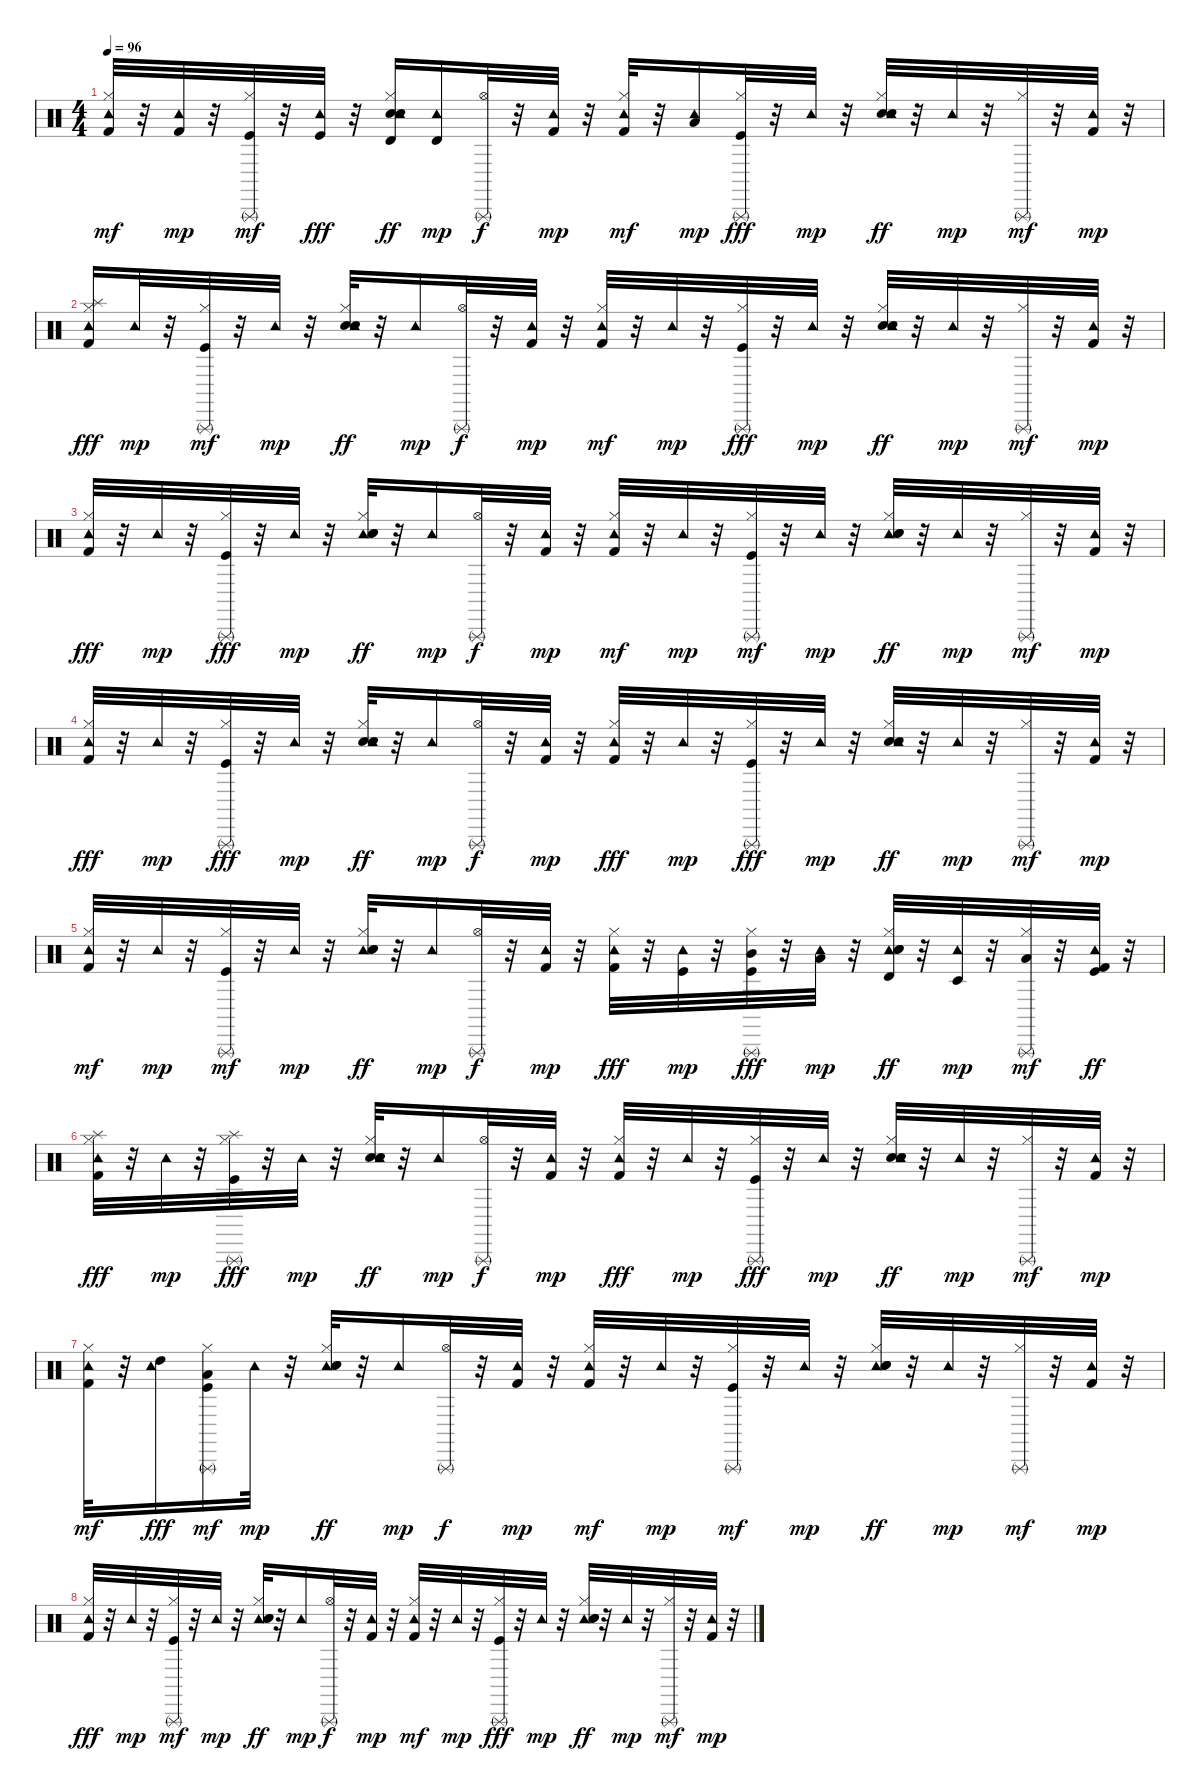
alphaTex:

\track "" {instrument percussion}
\staff {score}
\articulation defaults
\ts (4 4)
\tempo 96
\clef neutral
\ks c
("Hi-Hat (closed)" "Kick (hit) 2" "Tambourine (hit)").32{dy mf} r.32 ("Kick (hit) 2" "Tambourine (hit)").32{dy mp} r.32 ("Kick (hit)" "Hi-Hat (closed)" "Triangle (rnute)").32{dy mf} r.32 ("Tambourine (hit)" "Kick (hit)").32{dy fff} r.32 ("Timbale high (hit)" "Hi-Hat (closed)" "Electric Snare (hit)" "Tambourine (hit)" "Hand Clap (hit)").16{dy ff} ("Timbale high (hit)" "Tambourine (hit)").16{dy mp} ("Triangle (rnute)" "Hi-Hat (open)").32{dy f} r.32 ("Kick (hit) 2" "Tambourine (hit)").32{dy mp} r.32 ("Kick (hit) 2" "Hi-Hat (closed)" "Tambourine (hit)").32{dy mf} r.32 ("Low Tom (hit)" "Tambourine (hit)").16{dy mp} ("Triangle (rnute)" "Hi-Hat (closed)" "Kick (hit)").32{dy fff} r.32 "Tambourine (hit)".32{dy mp} r.32 ("Electric Snare (hit)" "Hi-Hat (closed)" "Tambourine (hit)" "Hand Clap (hit)").32{dy ff} r.32 "Tambourine (hit)".32{dy mp} r.32 ("Triangle (rnute)" "Hi-Hat (closed)").32{dy mf} r.32 ("Kick (hit) 2" "Tambourine (hit)").32{dy mp} r.32 |
("Splash (hit)" "Tambourine (hit)" "Kick (hit) 2" "Hi-Hat (closed)").16{dy fff} "Tambourine (hit)".32{dy mp} r.32 ("Kick (hit)" "Hi-Hat (closed)" "Triangle (rnute)").32{dy mf} r.32 "Tambourine (hit)".32{dy mp} r.32 ("Snare (hit) 2" "Hi-Hat (closed)" "Tambourine (hit)" "Hand Clap (hit)").32{dy ff} r.32 "Tambourine (hit)".16{dy mp} ("Triangle (rnute)" "Hi-Hat (open)").32{dy f} r.32 ("Kick (hit) 2" "Tambourine (hit)").32{dy mp} r.32 ("Kick (hit) 2" "Tambourine (hit)" "Hi-Hat (closed)").32{dy mf} r.32 "Tambourine (hit)".32{dy mp} r.32 ("Hi-Hat (closed)" "Kick (hit)" "Triangle (rnute)").32{dy fff} r.32 "Tambourine (hit)".32{dy mp} r.32 ("Snare (hit) 2" "Tambourine (hit)" "Hi-Hat (closed)" "Hand Clap (hit)").32{dy ff} r.32 "Tambourine (hit)".32{dy mp} r.32 ("Hi-Hat (closed)" "Triangle (rnute)").32{dy mf} r.32 ("Kick (hit) 2" "Tambourine (hit)").32{dy mp} r.32 |
("Hi-Hat (closed)" "Tambourine (hit)" "Kick (hit) 2").32{dy fff} r.32 "Tambourine (hit)".32{dy mp} r.32 ("Hi-Hat (closed)" "Triangle (rnute)" "Kick (hit)").32{dy fff} r.32 "Tambourine (hit)".32{dy mp} r.32 ("Tambourine (hit)" "Snare (hit) 2" "Hi-Hat (closed)" "Hand Clap (hit)").32{dy ff} r.32 "Tambourine (hit)".16{dy mp} ("Hi-Hat (open)" "Triangle (rnute)").32{dy f} r.32 ("Tambourine (hit)" "Kick (hit) 2").32{dy mp} r.32 ("Kick (hit) 2" "Tambourine (hit)" "Hi-Hat (closed)").32{dy mf} r.32 "Tambourine (hit)".32{dy mp} r.32 ("Kick (hit)" "Hi-Hat (closed)" "Triangle (rnute)").32{dy mf} r.32 "Tambourine (hit)".32{dy mp} r.32 ("Tambourine (hit)" "Snare (hit) 2" "Hi-Hat (closed)" "Hand Clap (hit)").32{dy ff} r.32 "Tambourine (hit)".32{dy mp} r.32 ("Triangle (rnute)" "Hi-Hat (closed)").32{dy mf} r.32 ("Kick (hit) 2" "Tambourine (hit)").32{dy mp} r.32 |
("Tambourine (hit)" "Hi-Hat (closed)" "Kick (hit) 2").32{dy fff} r.32 "Tambourine (hit)".32{dy mp} r.32 ("Hi-Hat (closed)" "Triangle (rnute)" "Kick (hit)").32{dy fff} r.32 "Tambourine (hit)".32{dy mp} r.32 ("Snare (hit) 2" "Tambourine (hit)" "Hi-Hat (closed)" "Hand Clap (hit)").32{dy ff} r.32 "Tambourine (hit)".16{dy mp} ("Triangle (rnute)" "Hi-Hat (open)").32{dy f} r.32 ("Tambourine (hit)" "Kick (hit) 2").32{dy mp} r.32 ("Tambourine (hit)" "Kick (hit) 2" "Hi-Hat (closed)").32{dy fff} r.32 "Tambourine (hit)".32{dy mp} r.32 ("Hi-Hat (closed)" "Triangle (rnute)" "Kick (hit)").32{dy fff} r.32 "Tambourine (hit)".32{dy mp} r.32 ("Snare (hit) 2" "Tambourine (hit)" "Hi-Hat (closed)" "Hand Clap (hit)").32{dy ff} r.32 "Tambourine (hit)".32{dy mp} r.32 ("Hi-Hat (closed)" "Triangle (rnute)").32{dy mf} r.32 ("Kick (hit) 2" "Tambourine (hit)").32{dy mp} r.32 |
("Kick (hit) 2" "Hi-Hat (closed)" "Tambourine (hit)").32{dy mf} r.32 "Tambourine (hit)".32{dy mp} r.32 ("Kick (hit)" "Triangle (rnute)" "Hi-Hat (closed)").32{dy mf} r.32 "Tambourine (hit)".32{dy mp} r.32 ("Tambourine (hit)" "Hi-Hat (closed)" "Snare (hit) 2" "Hand Clap (hit)").32{dy ff} r.32 "Tambourine (hit)".16{dy mp} ("Hi-Hat (open)" "Triangle (rnute)").32{dy f} r.32 ("Kick (hit) 2" "Tambourine (hit)").32{dy mp} r.32 ("Hi-Hat (closed)" "Tambourine (hit)" "Kick (hit) 2").32{dy fff} r.32 ("Kick (hit)" "Tambourine (hit)").32{dy mp} r.32 ("Hi-Hat (closed)" "Kick (hit)" "Mid Tom (hit)" "Triangle (rnute)").32{dy fff} r.32 ("Low Tom (hit)" "Tambourine (hit)").32{dy mp} r.32 ("Hi-Hat (closed)" "Timbale high (hit)" "Tambourine (hit)" "Snare (hit) 2" "Hand Clap (hit)").32{dy ff} r.32 ("Timbale low (hit)" "Tambourine (hit)").32{dy mp} r.32 ("Low Tom (hit)" "Triangle (rnute)" "Hi-Hat (closed)").32{dy mf} r.32 ("Tambourine (hit)" "Kick (hit)" "Kick (hit) 2").32{dy ff} r.32 |
("Splash (hit)" "Tambourine (hit)" "Hi-Hat (closed)" "Kick (hit) 2").32{dy fff} r.32 "Tambourine (hit)".32{dy mp} r.32 ("Hi-Hat (closed)" "Splash (hit)" "Triangle (rnute)" "Kick (hit)").32{dy fff} r.32 "Tambourine (hit)".32{dy mp} r.32 ("Hi-Hat (closed)" "Snare (hit) 2" "Tambourine (hit)" "Hand Clap (hit)").32{dy ff} r.32 "Tambourine (hit)".16{dy mp} ("Triangle (rnute)" "Hi-Hat (open)").32{dy f} r.32 ("Kick (hit) 2" "Tambourine (hit)").32{dy mp} r.32 ("Tambourine (hit)" "Kick (hit) 2" "Hi-Hat (closed)").32{dy fff} r.32 "Tambourine (hit)".32{dy mp} r.32 ("Hi-Hat (closed)" "Kick (hit)" "Triangle (rnute)").32{dy fff} r.32 "Tambourine (hit)".32{dy mp} r.32 ("Hi-Hat (closed)" "Snare (hit) 2" "Tambourine (hit)" "Hand Clap (hit)").32{dy ff} r.32 "Tambourine (hit)".32{dy mp} r.32 ("Hi-Hat (closed)" "Triangle (rnute)").32{dy mf} r.32 ("Tambourine (hit)" "Kick (hit) 2").32{dy mp} r.32 |
("Kick (hit) 2" "Tambourine (hit)" "Hi-Hat (closed)").32{dy mf} r.32 ("Tambourine (hit)" "High Tom (hit)").16{dy fff} ("Low Tom (hit)" "Kick (hit)" "Triangle (rnute)" "Hi-Hat (closed)").16{dy mf} "Tambourine (hit)".32{dy mp} r.32 ("Hi-Hat (closed)" "Tambourine (hit)" "Snare (hit) 2" "Hand Clap (hit)").32{dy ff} r.32 "Tambourine (hit)".16{dy mp} ("Hi-Hat (open)" "Triangle (rnute)").32{dy f} r.32 ("Tambourine (hit)" "Kick (hit) 2").32{dy mp} r.32 ("Hi-Hat (closed)" "Kick (hit) 2" "Tambourine (hit)").32{dy mf} r.32 "Tambourine (hit)".32{dy mp} r.32 ("Kick (hit)" "Hi-Hat (closed)" "Triangle (rnute)").32{dy mf} r.32 "Tambourine (hit)".32{dy mp} r.32 ("Tambourine (hit)" "Hi-Hat (closed)" "Snare (hit) 2" "Hand Clap (hit)").32{dy ff} r.32 "Tambourine (hit)".32{dy mp} r.32 ("Triangle (rnute)" "Hi-Hat (closed)").32{dy mf} r.32 ("Kick (hit) 2" "Tambourine (hit)").32{dy mp} r.32 |
("Hi-Hat (closed)" "Tambourine (hit)" "Kick (hit) 2").32{dy fff} r.32 "Tambourine (hit)".32{dy mp} r.32 ("Triangle (rnute)" "Kick (hit)" "Hi-Hat (closed)").32{dy mf} r.32 "Tambourine (hit)".32{dy mp} r.32 ("Tambourine (hit)" "Snare (hit) 2" "Hi-Hat (closed)" "Hand Clap (hit)").32{dy ff} r.32 "Tambourine (hit)".16{dy mp} ("Hi-Hat (open)" "Triangle (rnute)").32{dy f} r.32 ("Kick (hit) 2" "Tambourine (hit)").32{dy mp} r.32 ("Kick (hit) 2" "Hi-Hat (closed)" "Tambourine (hit)").32{dy mf} r.32 "Tambourine (hit)".32{dy mp} r.32 ("Hi-Hat (closed)" "Triangle (rnute)" "Kick (hit)").32{dy fff} r.32 "Tambourine (hit)".32{dy mp} r.32 ("Tambourine (hit)" "Snare (hit) 2" "Hi-Hat (closed)" "Hand Clap (hit)").32{dy ff} r.32 "Tambourine (hit)".32{dy mp} r.32 ("Triangle (rnute)" "Hi-Hat (closed)").32{dy mf} r.32 ("Kick (hit) 2" "Tambourine (hit)").32{dy mp} r.32
